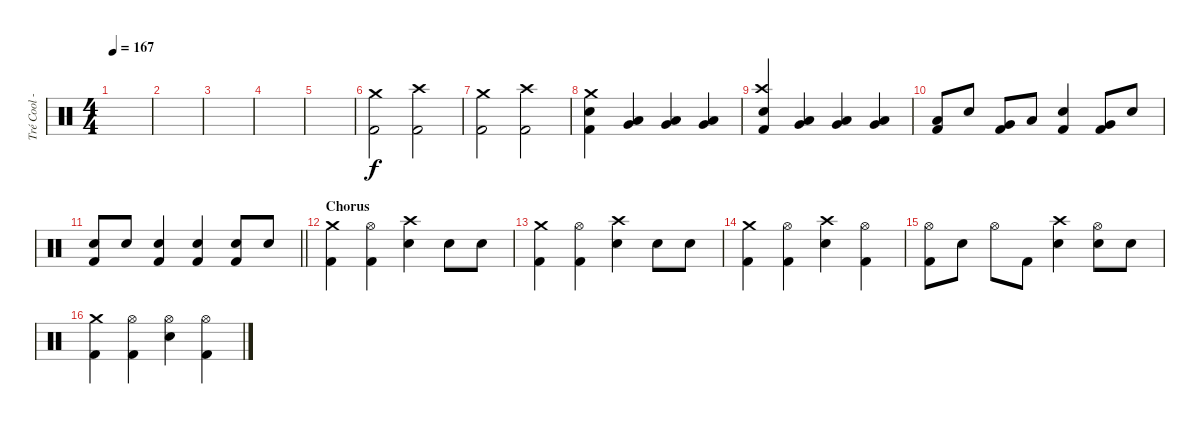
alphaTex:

\track ("Tré Cool - Drums" "Tré Cool -") {instrument percussion}
\staff {score}
\articulation defaults
\ts (4 4)
\tempo 167
\clef neutral
\ks c
|
|
|
|
|
("Crash medium (hit)" "Kick (hit) 2").2 ("Crash high (hit)" "Kick (hit) 2").2 |
("Crash medium (hit)" "Kick (hit) 2").2 ("Crash high (hit)" "Kick (hit) 2").2 |
("Crash medium (hit)" "Electric Snare (hit)" "Kick (hit) 2").4 ("Very Low Tom (hit)" "Low Floor Tom (hit)").4 ("Very Low Tom (hit)" "Low Floor Tom (hit)").4 ("Very Low Tom (hit)" "Low Floor Tom (hit)").4 |
("Crash high (hit)" "Electric Snare (hit)" "Kick (hit) 2").4 ("Very Low Tom (hit)" "Low Floor Tom (hit)").4 ("Very Low Tom (hit)" "Low Floor Tom (hit)").4 ("Very Low Tom (hit)" "Low Floor Tom (hit)").4 |
("Low Floor Tom (hit)" "Kick (hit) 2").8 "Electric Snare (hit)".8 ("Very Low Tom (hit)" "Kick (hit) 2").8 "Low Floor Tom (hit)".8 ("Electric Snare (hit)" "Kick (hit) 2").4 ("Very Low Tom (hit)" "Kick (hit) 2").8 "Electric Snare (hit)".8 |
\barLineRight lightlight
("Electric Snare (hit)" "Kick (hit) 2").8 "Electric Snare (hit)".8 ("Electric Snare (hit)" "Kick (hit) 2").4 ("Electric Snare (hit)" "Kick (hit) 2").4 ("Electric Snare (hit)" "Kick (hit) 2").8 "Electric Snare (hit)".8 |
\section ("" "Chorus")
("Crash medium (hit)" "Kick (hit) 2").4 ("Hi-Hat (open)" "Kick (hit) 2").4 ("Crash high (hit)" "Electric Snare (hit)").4 "Electric Snare (hit)".8 "Electric Snare (hit)".8 |
("Crash medium (hit)" "Kick (hit) 2").4 ("Hi-Hat (open)" "Kick (hit) 2").4 ("Crash high (hit)" "Electric Snare (hit)").4 "Electric Snare (hit)".8 "Electric Snare (hit)".8 |
("Crash medium (hit)" "Kick (hit) 2").4 ("Hi-Hat (open)" "Kick (hit) 2").4 ("Crash high (hit)" "Electric Snare (hit)").4 ("Hi-Hat (open)" "Kick (hit) 2").4 |
("Hi-Hat (open)" "Kick (hit) 2").8 "Electric Snare (hit)".8 "Hi-Hat (open)".8 "Kick (hit) 2".8 ("Crash high (hit)" "Electric Snare (hit)").4 ("Hi-Hat (open)" "Electric Snare (hit)").8 "Electric Snare (hit)".8 |
("Crash medium (hit)" "Kick (hit) 2").4 ("Hi-Hat (open)" "Kick (hit) 2").4 ("Hi-Hat (open)" "Electric Snare (hit)").4 ("Hi-Hat (open)" "Kick (hit) 2").4
